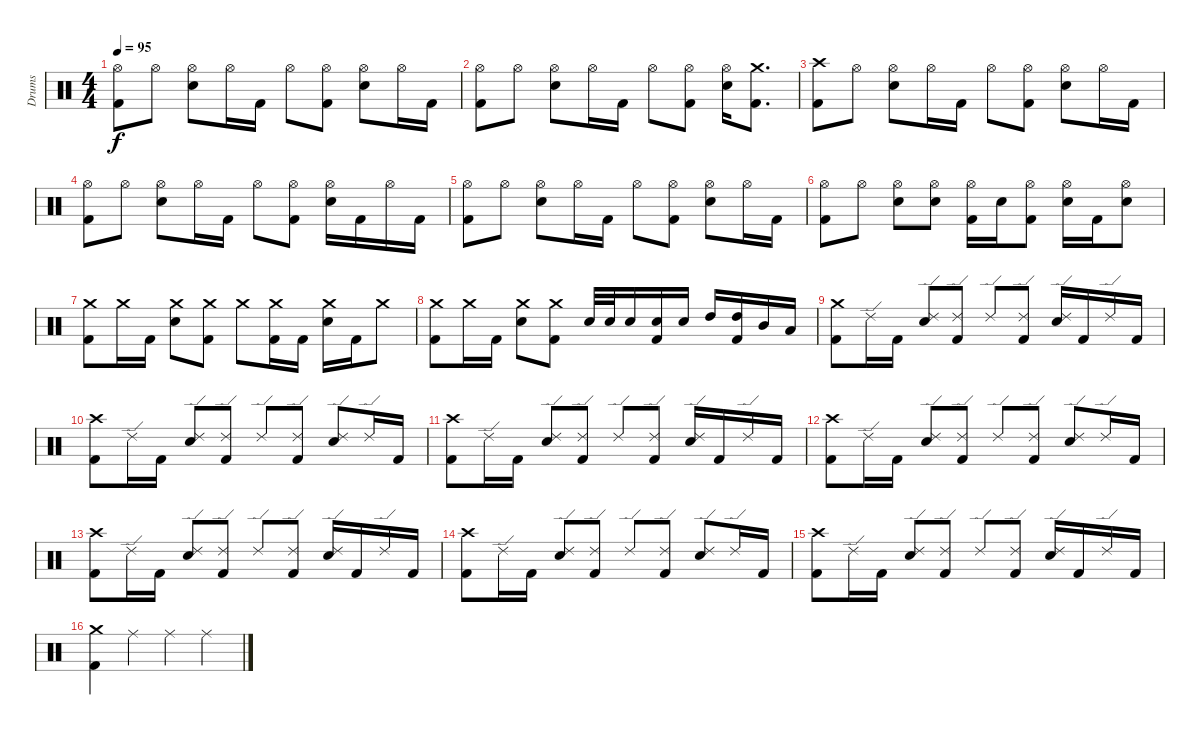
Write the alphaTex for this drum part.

\track ("Drums" "Drums") {instrument percussion}
\staff {score}
\articulation defaults
\ts (4 4)
\tempo 95
\clef neutral
\ks c
("Hi-Hat (open)" "Kick (hit) 2").8{dy f} "Hi-Hat (open)".8 ("Hi-Hat (open)" "Snare (hit) 2").8 "Hi-Hat (open)".16 "Kick (hit) 2".16 "Hi-Hat (open)".8 ("Hi-Hat (open)" "Kick (hit) 2").8 ("Hi-Hat (open)" "Snare (hit) 2").8 "Hi-Hat (open)".16 "Kick (hit) 2".16 |
("Hi-Hat (open)" "Kick (hit) 2").8 "Hi-Hat (open)".8 ("Hi-Hat (open)" "Snare (hit) 2").8 "Hi-Hat (open)".16 "Kick (hit) 2".16 "Hi-Hat (open)".8 ("Hi-Hat (open)" "Kick (hit) 2").8 ("Hi-Hat (open)" "Snare (hit) 2").16 ("Crash medium (hit)" "Kick (hit) 2").8{d} |
("Crash high (hit)" "Kick (hit) 2").8 "Hi-Hat (open)".8 ("Hi-Hat (open)" "Snare (hit) 2").8 "Hi-Hat (open)".16 "Kick (hit) 2".16 "Hi-Hat (open)".8 ("Hi-Hat (open)" "Kick (hit) 2").8 ("Hi-Hat (open)" "Snare (hit) 2").8 "Hi-Hat (open)".16 "Kick (hit) 2".16 |
("Hi-Hat (open)" "Kick (hit) 2").8 "Hi-Hat (open)".8 ("Hi-Hat (open)" "Snare (hit) 2").8 "Hi-Hat (open)".16 "Kick (hit) 2".16 "Hi-Hat (open)".8 ("Hi-Hat (open)" "Kick (hit) 2").8 ("Hi-Hat (open)" "Snare (hit) 2").16 "Kick (hit) 2".16 "Hi-Hat (open)".16 "Kick (hit) 2".16 |
("Hi-Hat (open)" "Kick (hit) 2").8 "Hi-Hat (open)".8 ("Hi-Hat (open)" "Snare (hit) 2").8 "Hi-Hat (open)".16 "Kick (hit) 2".16 "Hi-Hat (open)".8 ("Hi-Hat (open)" "Kick (hit) 2").8 ("Hi-Hat (open)" "Snare (hit) 2").8 "Hi-Hat (open)".16 "Kick (hit) 2".16 |
("Hi-Hat (open)" "Kick (hit) 2").8 "Hi-Hat (open)".8 ("Hi-Hat (open)" "Snare (hit) 2").8 ("Hi-Hat (open)" "Snare (hit) 2").8 ("Hi-Hat (open)" "Kick (hit) 2").16 "Snare (hit) 2".16 ("Hi-Hat (open)" "Kick (hit) 2").8 ("Hi-Hat (open)" "Snare (hit) 2").16 "Kick (hit) 2".16 ("Hi-Hat (open)" "Snare (hit) 2").8 |
("Crash medium (hit)" "Kick (hit) 2").8 "Crash medium (hit)".16 "Kick (hit) 2".16 ("Crash medium (hit)" "Snare (hit) 2").8 ("Crash medium (hit)" "Kick (hit) 2").8 "Crash medium (hit)".8 ("Crash medium (hit)" "Kick (hit) 2").16 "Kick (hit) 2".16 ("Crash medium (hit)" "Snare (hit) 2").16 "Kick (hit) 2".16 "Crash medium (hit)".8 |
("Crash medium (hit)" "Kick (hit) 2").8 "Crash medium (hit)".16 "Kick (hit) 2".16 ("Crash medium (hit)" "Snare (hit) 2").8 ("Crash medium (hit)" "Kick (hit) 2").8 "Snare (hit) 2".32 "Snare (hit) 2".32 "Snare (hit) 2".16 ("Snare (hit) 2" "Kick (hit) 2").16 "Snare (hit) 2".16 "High Tom (hit)".16 ("High Tom (hit)" "Kick (hit) 2").16 "Mid Tom (hit)".16 "Low Tom (hit)".16 |
("Crash medium (hit)" "Kick (hit) 2").8 "Ride (edge) 2".16 "Kick (hit) 2".16 ("Ride (edge) 2" "Snare (hit) 2").8 ("Ride (edge) 2" "Kick (hit) 2").8 "Ride (edge) 2".8 ("Ride (edge) 2" "Kick (hit) 2").8 ("Ride (edge) 2" "Snare (hit) 2").16 "Kick (hit) 2".16 "Ride (edge) 2".16 "Kick (hit) 2".16 |
("Crash high (hit)" "Kick (hit) 2").8 "Ride (edge) 2".16 "Kick (hit) 2".16 ("Ride (edge) 2" "Snare (hit) 2").8 ("Ride (edge) 2" "Kick (hit) 2").8 "Ride (edge) 2".8 ("Ride (edge) 2" "Kick (hit) 2").8 ("Ride (edge) 2" "Snare (hit) 2").8 "Ride (edge) 2".16 "Kick (hit) 2".16 |
("Crash high (hit)" "Kick (hit) 2").8 "Ride (edge) 2".16 "Kick (hit) 2".16 ("Ride (edge) 2" "Snare (hit) 2").8 ("Ride (edge) 2" "Kick (hit) 2").8 "Ride (edge) 2".8 ("Ride (edge) 2" "Kick (hit) 2").8 ("Ride (edge) 2" "Snare (hit) 2").16 "Kick (hit) 2".16 "Ride (edge) 2".16 "Kick (hit) 2".16 |
("Crash high (hit)" "Kick (hit) 2").8 "Ride (edge) 2".16 "Kick (hit) 2".16 ("Ride (edge) 2" "Snare (hit) 2").8 ("Ride (edge) 2" "Kick (hit) 2").8 "Ride (edge) 2".8 ("Ride (edge) 2" "Kick (hit) 2").8 ("Ride (edge) 2" "Snare (hit) 2").8 "Ride (edge) 2".16 "Kick (hit) 2".16 |
("Crash high (hit)" "Kick (hit) 2").8 "Ride (edge) 2".16 "Kick (hit) 2".16 ("Ride (edge) 2" "Snare (hit) 2").8 ("Ride (edge) 2" "Kick (hit) 2").8 "Ride (edge) 2".8 ("Ride (edge) 2" "Kick (hit) 2").8 ("Ride (edge) 2" "Snare (hit) 2").16 "Kick (hit) 2".16 "Ride (edge) 2".16 "Kick (hit) 2".16 |
("Crash high (hit)" "Kick (hit) 2").8 "Ride (edge) 2".16 "Kick (hit) 2".16 ("Ride (edge) 2" "Snare (hit) 2").8 ("Ride (edge) 2" "Kick (hit) 2").8 "Ride (edge) 2".8 ("Ride (edge) 2" "Kick (hit) 2").8 ("Ride (edge) 2" "Snare (hit) 2").8 "Ride (edge) 2".16 "Kick (hit) 2".16 |
("Crash high (hit)" "Kick (hit) 2").8 "Ride (edge) 2".16 "Kick (hit) 2".16 ("Ride (edge) 2" "Snare (hit) 2").8 ("Ride (edge) 2" "Kick (hit) 2").8 "Ride (edge) 2".8 ("Ride (edge) 2" "Kick (hit) 2").8 ("Ride (edge) 2" "Snare (hit) 2").16 "Kick (hit) 2".16 "Ride (edge) 2".16 "Kick (hit) 2".16 |
("Crash medium (hit)" "Kick (hit) 2").4 "Ride (middle)".4 "Ride (middle)".4 "Ride (middle)".4
